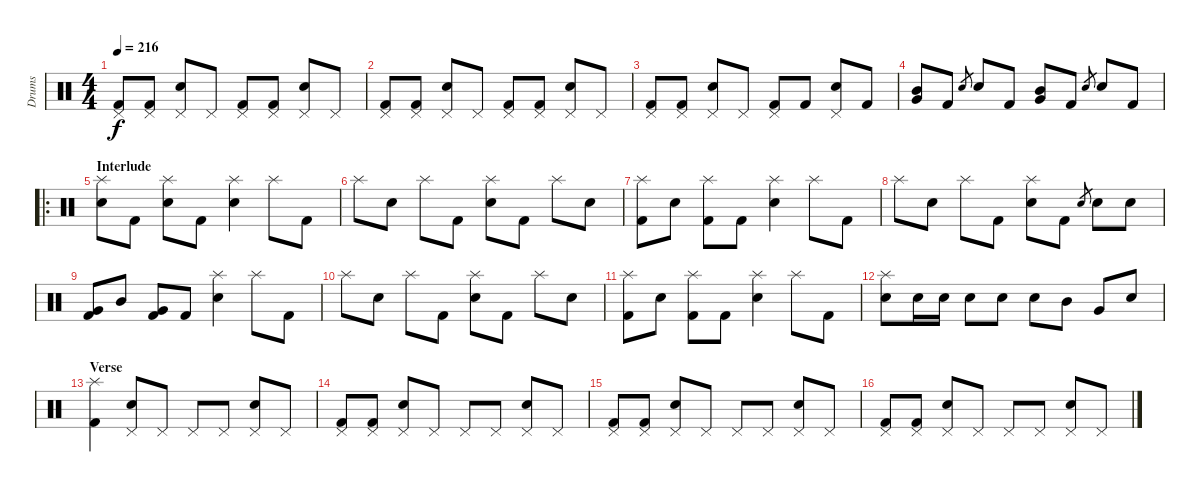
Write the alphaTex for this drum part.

\track ("Drums" "Drums") {instrument percussion}
\staff {score}
\articulation defaults
\ts (4 4)
\tempo 216
\clef neutral
\ks c
("Pedal Hi-Hat (hit)" "Kick (hit) 2").8{dy f} ("Pedal Hi-Hat (hit)" "Kick (hit) 2").8 ("Pedal Hi-Hat (hit)" "Electric Snare (hit)").8 "Pedal Hi-Hat (hit)".8 ("Pedal Hi-Hat (hit)" "Kick (hit) 2").8 ("Pedal Hi-Hat (hit)" "Kick (hit) 2").8 ("Pedal Hi-Hat (hit)" "Electric Snare (hit)").8 "Pedal Hi-Hat (hit)".8 |
("Pedal Hi-Hat (hit)" "Kick (hit) 2").8 ("Pedal Hi-Hat (hit)" "Kick (hit) 2").8 ("Pedal Hi-Hat (hit)" "Electric Snare (hit)").8 "Pedal Hi-Hat (hit)".8 ("Pedal Hi-Hat (hit)" "Kick (hit) 2").8 ("Pedal Hi-Hat (hit)" "Kick (hit) 2").8 ("Pedal Hi-Hat (hit)" "Electric Snare (hit)").8 "Pedal Hi-Hat (hit)".8 |
("Pedal Hi-Hat (hit)" "Kick (hit) 2").8 ("Pedal Hi-Hat (hit)" "Kick (hit) 2").8 ("Pedal Hi-Hat (hit)" "Electric Snare (hit)").8 "Pedal Hi-Hat (hit)".8 ("Pedal Hi-Hat (hit)" "Kick (hit) 2").8 "Kick (hit) 2".8 ("Pedal Hi-Hat (hit)" "Electric Snare (hit)").8 "Kick (hit) 2".8 |
("Mid Tom (hit)" "Very Low Tom (hit)").8 "Kick (hit) 2".8 "Electric Snare (hit)".8{gr} "Electric Snare (hit)".8 "Kick (hit) 2".8 ("Mid Tom (hit)" "Very Low Tom (hit)").8 "Kick (hit) 2".8 "Electric Snare (hit)".8{gr} "Electric Snare (hit)".8 "Kick (hit) 2".8 |
\ro
\section ("" "Interlude")
("Splash (hit)" "Electric Snare (hit)").8 "Kick (hit) 2".8 ("Splash (hit)" "Electric Snare (hit)").8 "Kick (hit) 2".8 ("Splash (hit)" "Electric Snare (hit)").4 "Splash (hit)".8 "Kick (hit) 2".8 |
"Splash (hit)".8 "Electric Snare (hit)".8 "Splash (hit)".8 "Kick (hit) 2".8 ("Splash (hit)" "Electric Snare (hit)").8 "Kick (hit) 2".8 "Splash (hit)".8 "Electric Snare (hit)".8 |
("Splash (hit)" "Kick (hit) 2").8 "Electric Snare (hit)".8 ("Splash (hit)" "Kick (hit) 2").8 "Kick (hit) 2".8 ("Splash (hit)" "Electric Snare (hit)").4 "Splash (hit)".8 "Kick (hit) 2".8 |
"Splash (hit)".8 "Electric Snare (hit)".8 "Splash (hit)".8 "Kick (hit) 2".8 ("Splash (hit)" "Electric Snare (hit)").8 "Kick (hit) 2".8 "Electric Snare (hit)".8{gr} "Electric Snare (hit)".8 "Electric Snare (hit)".8 |
("Very Low Tom (hit)" "Kick (hit) 2").8 "Mid Tom (hit)".8 ("Very Low Tom (hit)" "Kick (hit) 2").8 "Kick (hit) 2".8 ("Splash (hit)" "Electric Snare (hit)").4 "Splash (hit)".8 "Kick (hit) 2".8 |
"Splash (hit)".8 "Electric Snare (hit)".8 "Splash (hit)".8 "Kick (hit) 2".8 ("Splash (hit)" "Electric Snare (hit)").8 "Kick (hit) 2".8 "Splash (hit)".8 "Electric Snare (hit)".8 |
("Splash (hit)" "Kick (hit) 2").8 "Electric Snare (hit)".8 ("Splash (hit)" "Kick (hit) 2").8 "Kick (hit) 2".8 ("Splash (hit)" "Electric Snare (hit)").4 "Splash (hit)".8 "Kick (hit) 2".8 |
("Splash (hit)" "Electric Snare (hit)").8 "Electric Snare (hit)".16 "Electric Snare (hit)".16 "Electric Snare (hit)".8 "Electric Snare (hit)".8 "Electric Snare (hit)".8 "Mid Tom (hit)".8 "Very Low Tom (hit)".8 "Electric Snare (hit)".8 |
\section ("" "Verse")
("Splash (hit)" "Kick (hit) 2").4 ("Pedal Hi-Hat (hit)" "Electric Snare (hit)").8 "Pedal Hi-Hat (hit)".8 "Pedal Hi-Hat (hit)".8 "Pedal Hi-Hat (hit)".8 ("Pedal Hi-Hat (hit)" "Electric Snare (hit)").8 "Pedal Hi-Hat (hit)".8 |
("Pedal Hi-Hat (hit)" "Kick (hit) 2").8 ("Pedal Hi-Hat (hit)" "Kick (hit) 2").8 ("Pedal Hi-Hat (hit)" "Electric Snare (hit)").8 "Pedal Hi-Hat (hit)".8 "Pedal Hi-Hat (hit)".8 "Pedal Hi-Hat (hit)".8 ("Pedal Hi-Hat (hit)" "Electric Snare (hit)").8 "Pedal Hi-Hat (hit)".8 |
("Pedal Hi-Hat (hit)" "Kick (hit) 2").8 ("Pedal Hi-Hat (hit)" "Kick (hit) 2").8 ("Pedal Hi-Hat (hit)" "Electric Snare (hit)").8 "Pedal Hi-Hat (hit)".8 "Pedal Hi-Hat (hit)".8 "Pedal Hi-Hat (hit)".8 ("Pedal Hi-Hat (hit)" "Electric Snare (hit)").8 "Pedal Hi-Hat (hit)".8 |
("Pedal Hi-Hat (hit)" "Kick (hit) 2").8 ("Pedal Hi-Hat (hit)" "Kick (hit) 2").8 ("Pedal Hi-Hat (hit)" "Electric Snare (hit)").8 "Pedal Hi-Hat (hit)".8 "Pedal Hi-Hat (hit)".8 "Pedal Hi-Hat (hit)".8 ("Pedal Hi-Hat (hit)" "Electric Snare (hit)").8 "Pedal Hi-Hat (hit)".8
